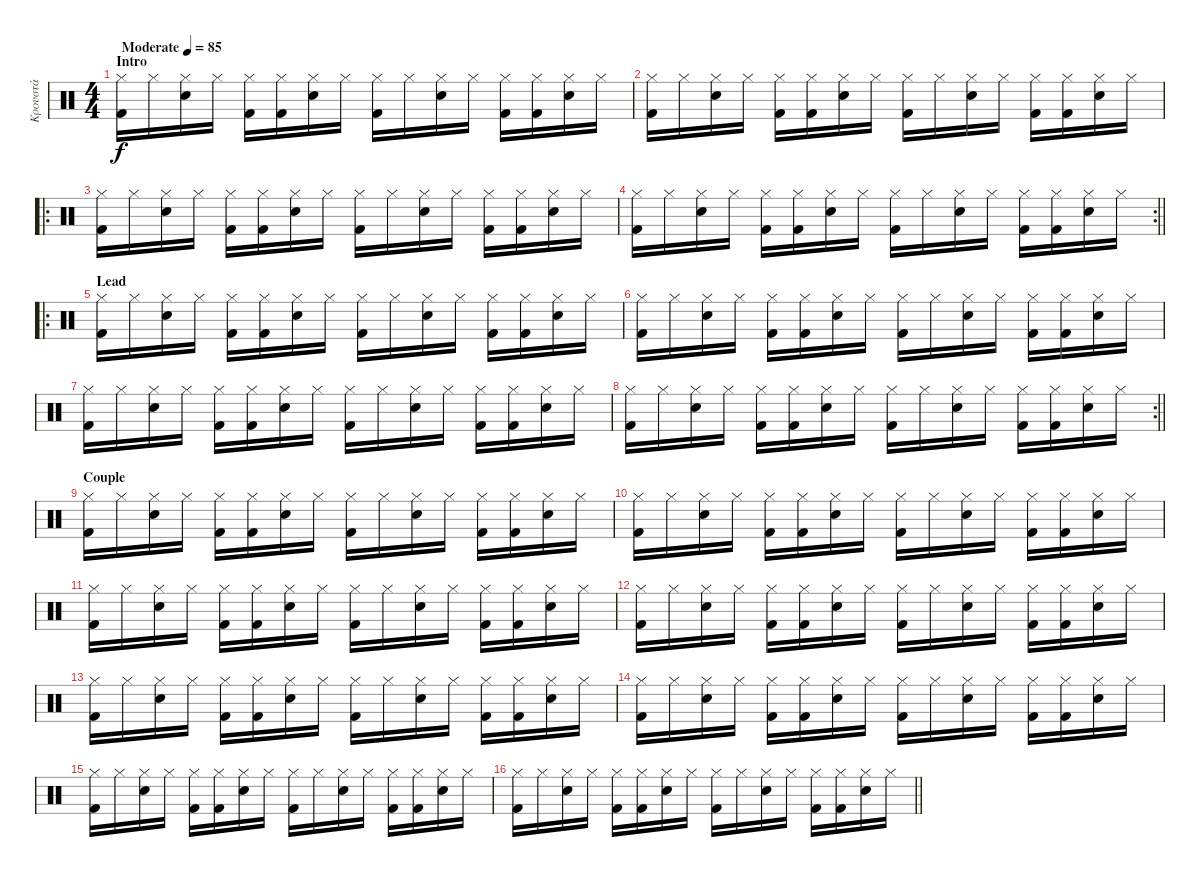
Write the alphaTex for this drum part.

\track ("Κρουστά" "Κρουστά") {instrument percussion}
\staff {score}
\articulation defaults
\ts (4 4)
\section ("" "Intro")
\tempo (85 "Moderate")
\clef neutral
\ks c
("Hi-Hat (closed)" "Kick (hit) 2").16{dy f volume 13} "Hi-Hat (closed)".16 ("Hi-Hat (closed)" "Snare (hit) 2").16 "Hi-Hat (closed)".16 ("Hi-Hat (closed)" "Kick (hit) 2").16 ("Hi-Hat (closed)" "Kick (hit) 2").16 ("Hi-Hat (closed)" "Snare (hit) 2").16 "Hi-Hat (closed)".16 ("Hi-Hat (closed)" "Kick (hit) 2").16 "Hi-Hat (closed)".16 ("Hi-Hat (closed)" "Snare (hit) 2").16 "Hi-Hat (closed)".16 ("Hi-Hat (closed)" "Kick (hit) 2").16 ("Hi-Hat (closed)" "Kick (hit) 2").16 ("Hi-Hat (closed)" "Snare (hit) 2").16 "Hi-Hat (closed)".16 |
("Hi-Hat (closed)" "Kick (hit) 2").16 "Hi-Hat (closed)".16 ("Hi-Hat (closed)" "Snare (hit) 2").16 "Hi-Hat (closed)".16 ("Hi-Hat (closed)" "Kick (hit) 2").16 ("Hi-Hat (closed)" "Kick (hit) 2").16 ("Hi-Hat (closed)" "Snare (hit) 2").16 "Hi-Hat (closed)".16 ("Hi-Hat (closed)" "Kick (hit) 2").16 "Hi-Hat (closed)".16 ("Hi-Hat (closed)" "Snare (hit) 2").16 "Hi-Hat (closed)".16 ("Hi-Hat (closed)" "Kick (hit) 2").16 ("Hi-Hat (closed)" "Kick (hit) 2").16 ("Hi-Hat (closed)" "Snare (hit) 2").16 "Hi-Hat (closed)".16 |
\ro
("Hi-Hat (closed)" "Kick (hit) 2").16 "Hi-Hat (closed)".16 ("Hi-Hat (closed)" "Snare (hit) 2").16 "Hi-Hat (closed)".16 ("Hi-Hat (closed)" "Kick (hit) 2").16 ("Hi-Hat (closed)" "Kick (hit) 2").16 ("Hi-Hat (closed)" "Snare (hit) 2").16 "Hi-Hat (closed)".16 ("Hi-Hat (closed)" "Kick (hit) 2").16 "Hi-Hat (closed)".16 ("Hi-Hat (closed)" "Snare (hit) 2").16 "Hi-Hat (closed)".16 ("Hi-Hat (closed)" "Kick (hit) 2").16 ("Hi-Hat (closed)" "Kick (hit) 2").16 ("Hi-Hat (closed)" "Snare (hit) 2").16 "Hi-Hat (closed)".16 |
\rc 2
\barLineRight lightlight
("Hi-Hat (closed)" "Kick (hit) 2").16 "Hi-Hat (closed)".16 ("Hi-Hat (closed)" "Snare (hit) 2").16 "Hi-Hat (closed)".16 ("Hi-Hat (closed)" "Kick (hit) 2").16 ("Hi-Hat (closed)" "Kick (hit) 2").16 ("Hi-Hat (closed)" "Snare (hit) 2").16 "Hi-Hat (closed)".16 ("Hi-Hat (closed)" "Kick (hit) 2").16 "Hi-Hat (closed)".16 ("Hi-Hat (closed)" "Snare (hit) 2").16 "Hi-Hat (closed)".16 ("Hi-Hat (closed)" "Kick (hit) 2").16 ("Hi-Hat (closed)" "Kick (hit) 2").16 ("Hi-Hat (closed)" "Snare (hit) 2").16 "Hi-Hat (closed)".16 |
\ro
\section ("" "Lead")
("Hi-Hat (closed)" "Kick (hit) 2").16 "Hi-Hat (closed)".16 ("Hi-Hat (closed)" "Snare (hit) 2").16 "Hi-Hat (closed)".16 ("Hi-Hat (closed)" "Kick (hit) 2").16 ("Hi-Hat (closed)" "Kick (hit) 2").16 ("Hi-Hat (closed)" "Snare (hit) 2").16 "Hi-Hat (closed)".16 ("Hi-Hat (closed)" "Kick (hit) 2").16 "Hi-Hat (closed)".16 ("Hi-Hat (closed)" "Snare (hit) 2").16 "Hi-Hat (closed)".16 ("Hi-Hat (closed)" "Kick (hit) 2").16 ("Hi-Hat (closed)" "Kick (hit) 2").16 ("Hi-Hat (closed)" "Snare (hit) 2").16 "Hi-Hat (closed)".16 |
("Hi-Hat (closed)" "Kick (hit) 2").16 "Hi-Hat (closed)".16 ("Hi-Hat (closed)" "Snare (hit) 2").16 "Hi-Hat (closed)".16 ("Hi-Hat (closed)" "Kick (hit) 2").16 ("Hi-Hat (closed)" "Kick (hit) 2").16 ("Hi-Hat (closed)" "Snare (hit) 2").16 "Hi-Hat (closed)".16 ("Hi-Hat (closed)" "Kick (hit) 2").16 "Hi-Hat (closed)".16 ("Hi-Hat (closed)" "Snare (hit) 2").16 "Hi-Hat (closed)".16 ("Hi-Hat (closed)" "Kick (hit) 2").16 ("Hi-Hat (closed)" "Kick (hit) 2").16 ("Hi-Hat (closed)" "Snare (hit) 2").16 "Hi-Hat (closed)".16 |
("Hi-Hat (closed)" "Kick (hit) 2").16 "Hi-Hat (closed)".16 ("Hi-Hat (closed)" "Snare (hit) 2").16 "Hi-Hat (closed)".16 ("Hi-Hat (closed)" "Kick (hit) 2").16 ("Hi-Hat (closed)" "Kick (hit) 2").16 ("Hi-Hat (closed)" "Snare (hit) 2").16 "Hi-Hat (closed)".16 ("Hi-Hat (closed)" "Kick (hit) 2").16 "Hi-Hat (closed)".16 ("Hi-Hat (closed)" "Snare (hit) 2").16 "Hi-Hat (closed)".16 ("Hi-Hat (closed)" "Kick (hit) 2").16 ("Hi-Hat (closed)" "Kick (hit) 2").16 ("Hi-Hat (closed)" "Snare (hit) 2").16 "Hi-Hat (closed)".16 |
\rc 2
\barLineRight lightlight
("Hi-Hat (closed)" "Kick (hit) 2").16 "Hi-Hat (closed)".16 ("Hi-Hat (closed)" "Snare (hit) 2").16 "Hi-Hat (closed)".16 ("Hi-Hat (closed)" "Kick (hit) 2").16 ("Hi-Hat (closed)" "Kick (hit) 2").16 ("Hi-Hat (closed)" "Snare (hit) 2").16 "Hi-Hat (closed)".16 ("Hi-Hat (closed)" "Kick (hit) 2").16 "Hi-Hat (closed)".16 ("Hi-Hat (closed)" "Snare (hit) 2").16 "Hi-Hat (closed)".16 ("Hi-Hat (closed)" "Kick (hit) 2").16 ("Hi-Hat (closed)" "Kick (hit) 2").16 ("Hi-Hat (closed)" "Snare (hit) 2").16 "Hi-Hat (closed)".16 |
\section ("" "Couple")
("Hi-Hat (closed)" "Kick (hit) 2").16 "Hi-Hat (closed)".16 ("Hi-Hat (closed)" "Snare (hit) 2").16 "Hi-Hat (closed)".16 ("Hi-Hat (closed)" "Kick (hit) 2").16 ("Hi-Hat (closed)" "Kick (hit) 2").16 ("Hi-Hat (closed)" "Snare (hit) 2").16 "Hi-Hat (closed)".16 ("Hi-Hat (closed)" "Kick (hit) 2").16 "Hi-Hat (closed)".16 ("Hi-Hat (closed)" "Snare (hit) 2").16 "Hi-Hat (closed)".16 ("Hi-Hat (closed)" "Kick (hit) 2").16 ("Hi-Hat (closed)" "Kick (hit) 2").16 ("Hi-Hat (closed)" "Snare (hit) 2").16 "Hi-Hat (closed)".16 |
("Hi-Hat (closed)" "Kick (hit) 2").16 "Hi-Hat (closed)".16 ("Hi-Hat (closed)" "Snare (hit) 2").16 "Hi-Hat (closed)".16 ("Hi-Hat (closed)" "Kick (hit) 2").16 ("Hi-Hat (closed)" "Kick (hit) 2").16 ("Hi-Hat (closed)" "Snare (hit) 2").16 "Hi-Hat (closed)".16 ("Hi-Hat (closed)" "Kick (hit) 2").16 "Hi-Hat (closed)".16 ("Hi-Hat (closed)" "Snare (hit) 2").16 "Hi-Hat (closed)".16 ("Hi-Hat (closed)" "Kick (hit) 2").16 ("Hi-Hat (closed)" "Kick (hit) 2").16 ("Hi-Hat (closed)" "Snare (hit) 2").16 "Hi-Hat (closed)".16 |
("Hi-Hat (closed)" "Kick (hit) 2").16 "Hi-Hat (closed)".16 ("Hi-Hat (closed)" "Snare (hit) 2").16 "Hi-Hat (closed)".16 ("Hi-Hat (closed)" "Kick (hit) 2").16 ("Hi-Hat (closed)" "Kick (hit) 2").16 ("Hi-Hat (closed)" "Snare (hit) 2").16 "Hi-Hat (closed)".16 ("Hi-Hat (closed)" "Kick (hit) 2").16 "Hi-Hat (closed)".16 ("Hi-Hat (closed)" "Snare (hit) 2").16 "Hi-Hat (closed)".16 ("Hi-Hat (closed)" "Kick (hit) 2").16 ("Hi-Hat (closed)" "Kick (hit) 2").16 ("Hi-Hat (closed)" "Snare (hit) 2").16 "Hi-Hat (closed)".16 |
("Hi-Hat (closed)" "Kick (hit) 2").16 "Hi-Hat (closed)".16 ("Hi-Hat (closed)" "Snare (hit) 2").16 "Hi-Hat (closed)".16 ("Hi-Hat (closed)" "Kick (hit) 2").16 ("Hi-Hat (closed)" "Kick (hit) 2").16 ("Hi-Hat (closed)" "Snare (hit) 2").16 "Hi-Hat (closed)".16 ("Hi-Hat (closed)" "Kick (hit) 2").16 "Hi-Hat (closed)".16 ("Hi-Hat (closed)" "Snare (hit) 2").16 "Hi-Hat (closed)".16 ("Hi-Hat (closed)" "Kick (hit) 2").16 ("Hi-Hat (closed)" "Kick (hit) 2").16 ("Hi-Hat (closed)" "Snare (hit) 2").16 "Hi-Hat (closed)".16 |
("Hi-Hat (closed)" "Kick (hit) 2").16 "Hi-Hat (closed)".16 ("Hi-Hat (closed)" "Snare (hit) 2").16 "Hi-Hat (closed)".16 ("Hi-Hat (closed)" "Kick (hit) 2").16 ("Hi-Hat (closed)" "Kick (hit) 2").16 ("Hi-Hat (closed)" "Snare (hit) 2").16 "Hi-Hat (closed)".16 ("Hi-Hat (closed)" "Kick (hit) 2").16 "Hi-Hat (closed)".16 ("Hi-Hat (closed)" "Snare (hit) 2").16 "Hi-Hat (closed)".16 ("Hi-Hat (closed)" "Kick (hit) 2").16 ("Hi-Hat (closed)" "Kick (hit) 2").16 ("Hi-Hat (closed)" "Snare (hit) 2").16 "Hi-Hat (closed)".16 |
("Hi-Hat (closed)" "Kick (hit) 2").16 "Hi-Hat (closed)".16 ("Hi-Hat (closed)" "Snare (hit) 2").16 "Hi-Hat (closed)".16 ("Hi-Hat (closed)" "Kick (hit) 2").16 ("Hi-Hat (closed)" "Kick (hit) 2").16 ("Hi-Hat (closed)" "Snare (hit) 2").16 "Hi-Hat (closed)".16 ("Hi-Hat (closed)" "Kick (hit) 2").16 "Hi-Hat (closed)".16 ("Hi-Hat (closed)" "Snare (hit) 2").16 "Hi-Hat (closed)".16 ("Hi-Hat (closed)" "Kick (hit) 2").16 ("Hi-Hat (closed)" "Kick (hit) 2").16 ("Hi-Hat (closed)" "Snare (hit) 2").16 "Hi-Hat (closed)".16 |
("Hi-Hat (closed)" "Kick (hit) 2").16 "Hi-Hat (closed)".16 ("Hi-Hat (closed)" "Snare (hit) 2").16 "Hi-Hat (closed)".16 ("Hi-Hat (closed)" "Kick (hit) 2").16 ("Hi-Hat (closed)" "Kick (hit) 2").16 ("Hi-Hat (closed)" "Snare (hit) 2").16 "Hi-Hat (closed)".16 ("Hi-Hat (closed)" "Kick (hit) 2").16 "Hi-Hat (closed)".16 ("Hi-Hat (closed)" "Snare (hit) 2").16 "Hi-Hat (closed)".16 ("Hi-Hat (closed)" "Kick (hit) 2").16 ("Hi-Hat (closed)" "Kick (hit) 2").16 ("Hi-Hat (closed)" "Snare (hit) 2").16 "Hi-Hat (closed)".16 |
\barLineRight lightlight
("Hi-Hat (closed)" "Kick (hit) 2").16 "Hi-Hat (closed)".16 ("Hi-Hat (closed)" "Snare (hit) 2").16 "Hi-Hat (closed)".16 ("Hi-Hat (closed)" "Kick (hit) 2").16 ("Hi-Hat (closed)" "Kick (hit) 2").16 ("Hi-Hat (closed)" "Snare (hit) 2").16 "Hi-Hat (closed)".16 ("Hi-Hat (closed)" "Kick (hit) 2").16 "Hi-Hat (closed)".16 ("Hi-Hat (closed)" "Snare (hit) 2").16 "Hi-Hat (closed)".16 ("Hi-Hat (closed)" "Kick (hit) 2").16 ("Hi-Hat (closed)" "Kick (hit) 2").16 ("Hi-Hat (closed)" "Snare (hit) 2").16 "Hi-Hat (closed)".16
